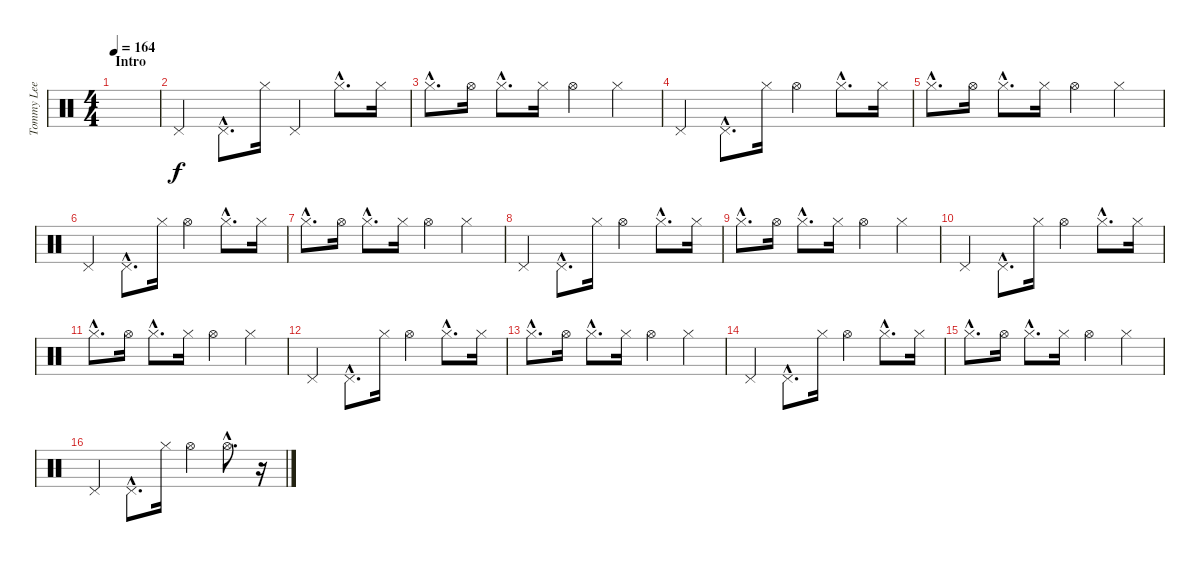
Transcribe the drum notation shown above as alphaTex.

\track ("Tommy Lee" "Tommy Lee") {instrument percussion}
\staff {score}
\articulation defaults
\ts (4 4)
\section ("" "Intro")
\tempo 164
\clef neutral
\ks c
|
"Pedal Hi-Hat (hit)".4 "Pedal Hi-Hat (hit)"{hac}.8{d} "Hi-Hat (closed)".16 "Pedal Hi-Hat (hit)".4 "Hi-Hat (closed)"{hac}.8{d} "Hi-Hat (closed)".16 |
"Hi-Hat (closed)"{hac}.8{d} "Hi-Hat (open)".16 "Hi-Hat (closed)"{hac}.8{d} "Hi-Hat (closed)".16 "Hi-Hat (open)".4 "Hi-Hat (closed)".4 |
"Pedal Hi-Hat (hit)".4 "Pedal Hi-Hat (hit)"{hac}.8{d} "Hi-Hat (closed)".16 "Hi-Hat (open)".4 "Hi-Hat (closed)"{hac}.8{d} "Hi-Hat (closed)".16 |
"Hi-Hat (closed)"{hac}.8{d} "Hi-Hat (open)".16 "Hi-Hat (closed)"{hac}.8{d} "Hi-Hat (closed)".16 "Hi-Hat (open)".4 "Hi-Hat (closed)".4 |
"Pedal Hi-Hat (hit)".4 "Pedal Hi-Hat (hit)"{hac}.8{d} "Hi-Hat (closed)".16 "Hi-Hat (open)".4 "Hi-Hat (closed)"{hac}.8{d} "Hi-Hat (closed)".16 |
"Hi-Hat (closed)"{hac}.8{d} "Hi-Hat (open)".16 "Hi-Hat (closed)"{hac}.8{d} "Hi-Hat (closed)".16 "Hi-Hat (open)".4 "Hi-Hat (closed)".4 |
"Pedal Hi-Hat (hit)".4 "Pedal Hi-Hat (hit)"{hac}.8{d} "Hi-Hat (closed)".16 "Hi-Hat (open)".4 "Hi-Hat (closed)"{hac}.8{d} "Hi-Hat (closed)".16 |
"Hi-Hat (closed)"{hac}.8{d} "Hi-Hat (open)".16 "Hi-Hat (closed)"{hac}.8{d} "Hi-Hat (closed)".16 "Hi-Hat (open)".4 "Hi-Hat (closed)".4 |
"Pedal Hi-Hat (hit)".4 "Pedal Hi-Hat (hit)"{hac}.8{d} "Hi-Hat (closed)".16 "Hi-Hat (open)".4 "Hi-Hat (closed)"{hac}.8{d} "Hi-Hat (closed)".16 |
"Hi-Hat (closed)"{hac}.8{d} "Hi-Hat (open)".16 "Hi-Hat (closed)"{hac}.8{d} "Hi-Hat (closed)".16 "Hi-Hat (open)".4 "Hi-Hat (closed)".4 |
"Pedal Hi-Hat (hit)".4 "Pedal Hi-Hat (hit)"{hac}.8{d} "Hi-Hat (closed)".16 "Hi-Hat (open)".4 "Hi-Hat (closed)"{hac}.8{d} "Hi-Hat (closed)".16 |
"Hi-Hat (closed)"{hac}.8{d} "Hi-Hat (open)".16 "Hi-Hat (closed)"{hac}.8{d} "Hi-Hat (closed)".16 "Hi-Hat (open)".4 "Hi-Hat (closed)".4 |
"Pedal Hi-Hat (hit)".4 "Pedal Hi-Hat (hit)"{hac}.8{d} "Hi-Hat (closed)".16 "Hi-Hat (open)".4 "Hi-Hat (closed)"{hac}.8{d} "Hi-Hat (closed)".16 |
"Hi-Hat (closed)"{hac}.8{d} "Hi-Hat (open)".16 "Hi-Hat (closed)"{hac}.8{d} "Hi-Hat (closed)".16 "Hi-Hat (open)".4 "Hi-Hat (closed)".4 |
"Pedal Hi-Hat (hit)".4 "Pedal Hi-Hat (hit)"{hac}.8{d} "Hi-Hat (closed)".16 "Hi-Hat (open)".4 "Hi-Hat (open)"{hac}.8{d} r.16
